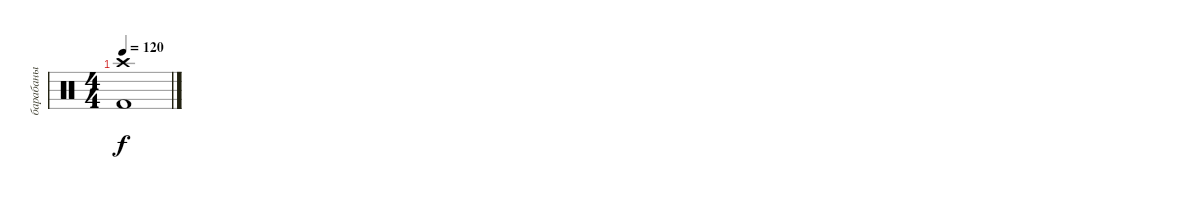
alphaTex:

\track ("барабаны" "барабаны") {instrument percussion}
\staff {score}
\articulation defaults
\ts (4 4)
\tempo 120
\clef neutral
\ks c
("Crash high (hit)" "Kick (hit) 2").1{dy f}
